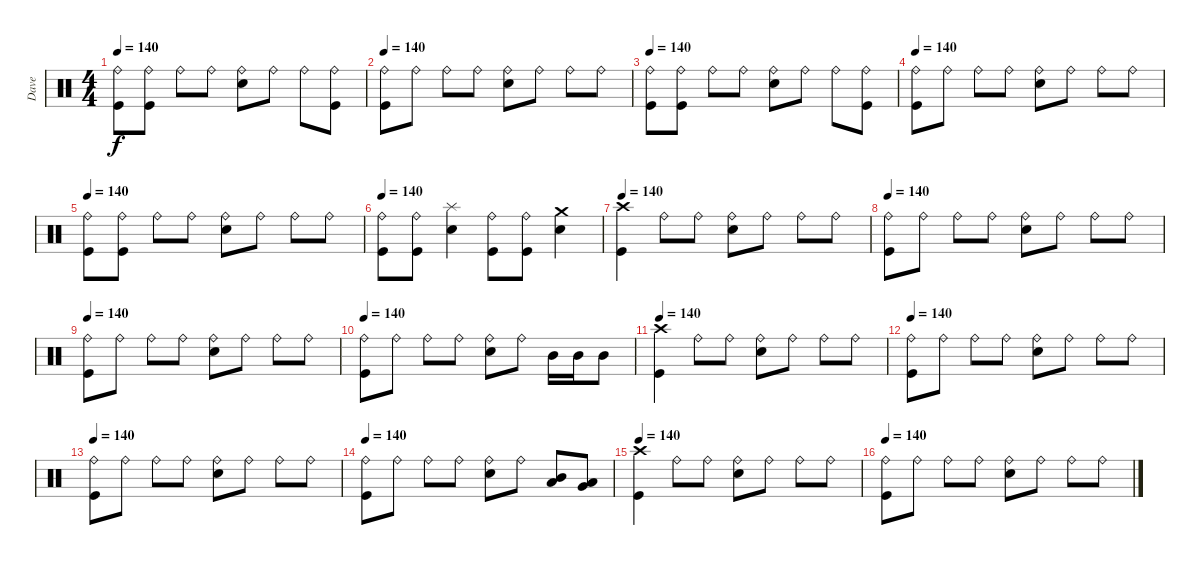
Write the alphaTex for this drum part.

\track ("Dave" "Dave") {instrument percussion}
\staff {score}
\articulation defaults
\ts (4 4)
\tempo 140
\clef neutral
\ks c
("Kick (hit)" "Ride (bell)").8{dy f} ("Kick (hit)" "Ride (bell)").8 "Ride (bell)".8 "Ride (bell)".8 ("Electric Snare (hit)" "Ride (bell)").8 "Ride (bell)".8 "Ride (bell)".8 ("Kick (hit)" "Ride (bell)").8 |
\tempo 140
("Kick (hit)" "Ride (bell)").8 "Ride (bell)".8 "Ride (bell)".8 "Ride (bell)".8 ("Electric Snare (hit)" "Ride (bell)").8 "Ride (bell)".8 "Ride (bell)".8 "Ride (bell)".8 |
\tempo 140
("Kick (hit)" "Ride (bell)").8 ("Kick (hit)" "Ride (bell)").8 "Ride (bell)".8 "Ride (bell)".8 ("Electric Snare (hit)" "Ride (bell)").8 "Ride (bell)".8 "Ride (bell)".8 ("Kick (hit)" "Ride (bell)").8 |
\tempo 140
("Kick (hit)" "Ride (bell)").8 "Ride (bell)".8 "Ride (bell)".8 "Ride (bell)".8 ("Electric Snare (hit)" "Ride (bell)").8 "Ride (bell)".8 "Ride (bell)".8 "Ride (bell)".8 |
\tempo 140
("Kick (hit)" "Ride (bell)").8 ("Kick (hit)" "Ride (bell)").8 "Ride (bell)".8 "Ride (bell)".8 ("Electric Snare (hit)" "Ride (bell)").8 "Ride (bell)".8 "Ride (bell)".8 "Ride (bell)".8 |
\tempo 140
("Kick (hit)" "Ride (bell)").8 ("Kick (hit)" "Ride (bell)").8 ("Electric Snare (hit)" "Splash (hit)").4 ("Kick (hit)" "Ride (bell)").8 ("Kick (hit)" "Ride (bell)").8 ("Electric Snare (hit)" "Crash medium (hit)").4 |
\tempo 140
("Kick (hit)" "Crash high (hit)").4 "Ride (bell)".8 "Ride (bell)".8 ("Electric Snare (hit)" "Ride (bell)").8 "Ride (bell)".8 "Ride (bell)".8 "Ride (bell)".8 |
\tempo 140
("Kick (hit)" "Ride (bell)").8 "Ride (bell)".8 "Ride (bell)".8 "Ride (bell)".8 ("Electric Snare (hit)" "Ride (bell)").8 "Ride (bell)".8 "Ride (bell)".8 "Ride (bell)".8 |
\tempo 140
("Kick (hit)" "Ride (bell)").8 "Ride (bell)".8 "Ride (bell)".8 "Ride (bell)".8 ("Electric Snare (hit)" "Ride (bell)").8 "Ride (bell)".8 "Ride (bell)".8 "Ride (bell)".8 |
\tempo 140
("Kick (hit)" "Ride (bell)").8 "Ride (bell)".8 "Ride (bell)".8 "Ride (bell)".8 ("Electric Snare (hit)" "Ride (bell)").8 "Ride (bell)".8 "Mid Tom (hit)".16 "Mid Tom (hit)".16 "Mid Tom (hit)".8 |
\tempo 140
("Kick (hit)" "Crash high (hit)").4 "Ride (bell)".8 "Ride (bell)".8 ("Electric Snare (hit)" "Ride (bell)").8 "Ride (bell)".8 "Ride (bell)".8 "Ride (bell)".8 |
\tempo 140
("Kick (hit)" "Ride (bell)").8 "Ride (bell)".8 "Ride (bell)".8 "Ride (bell)".8 ("Electric Snare (hit)" "Ride (bell)").8 "Ride (bell)".8 "Ride (bell)".8 "Ride (bell)".8 |
\tempo 140
("Kick (hit)" "Ride (bell)").8 "Ride (bell)".8 "Ride (bell)".8 "Ride (bell)".8 ("Electric Snare (hit)" "Ride (bell)").8 "Ride (bell)".8 "Ride (bell)".8 "Ride (bell)".8 |
\tempo 140
("Kick (hit)" "Ride (bell)").8 "Ride (bell)".8 "Ride (bell)".8 "Ride (bell)".8 ("Electric Snare (hit)" "Ride (bell)").8 "Ride (bell)".8 ("Mid Tom (hit)" "Low Tom (hit)").8 ("Low Tom (hit)" "Very Low Tom (hit)").8 |
\tempo 140
("Kick (hit)" "Crash high (hit)").4 "Ride (bell)".8 "Ride (bell)".8 ("Electric Snare (hit)" "Ride (bell)").8 "Ride (bell)".8 "Ride (bell)".8 "Ride (bell)".8 |
\tempo 140
("Kick (hit)" "Ride (bell)").8 "Ride (bell)".8 "Ride (bell)".8 "Ride (bell)".8 ("Electric Snare (hit)" "Ride (bell)").8 "Ride (bell)".8 "Ride (bell)".8 "Ride (bell)".8
